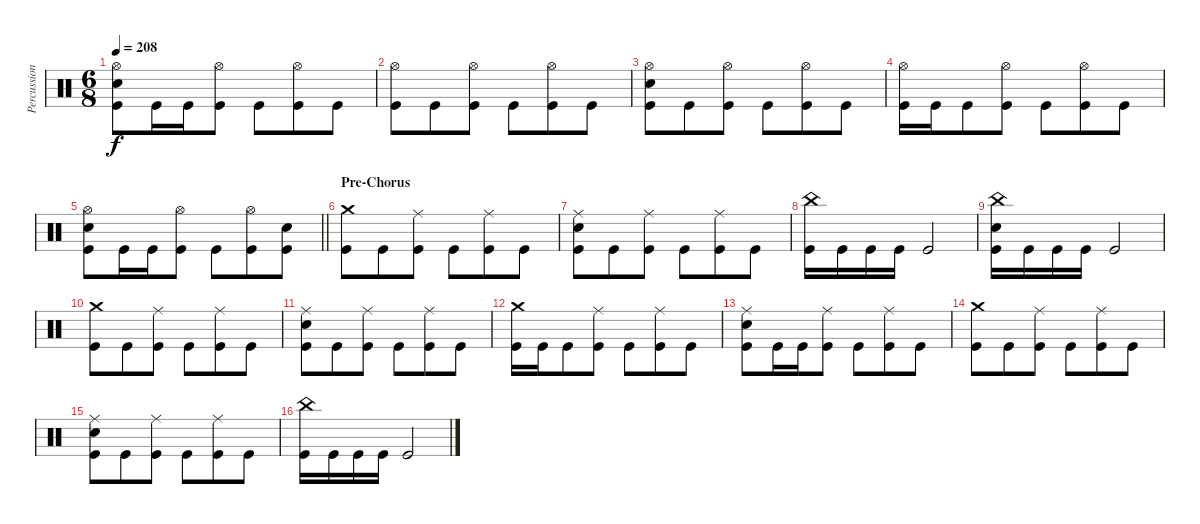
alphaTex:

\track ("Percussion" "Percussion") {instrument percussion}
\staff {score}
\articulation defaults
\ts (6 8)
\tempo 208
\clef neutral
\ks c
("Hi-Hat (open)" "Electric Snare (hit)" "Kick (hit)").8{dy f} "Kick (hit)".16 "Kick (hit)".16 ("Hi-Hat (open)" "Kick (hit)").8 "Kick (hit)".8 ("Hi-Hat (open)" "Kick (hit)").8 "Kick (hit)".8 |
("Hi-Hat (open)" "Kick (hit)").8 "Kick (hit)".8 ("Hi-Hat (open)" "Kick (hit)").8 "Kick (hit)".8 ("Hi-Hat (open)" "Kick (hit)").8 "Kick (hit)".8 |
("Hi-Hat (open)" "Electric Snare (hit)" "Kick (hit)").8 "Kick (hit)".8 ("Hi-Hat (open)" "Kick (hit)").8 "Kick (hit)".8 ("Hi-Hat (open)" "Kick (hit)").8 "Kick (hit)".8 |
("Hi-Hat (open)" "Kick (hit)").16 "Kick (hit)".16 "Kick (hit)".8 ("Hi-Hat (open)" "Kick (hit)").8 "Kick (hit)".8 ("Hi-Hat (open)" "Kick (hit)").8 "Kick (hit)".8 |
\barLineRight lightlight
("Hi-Hat (open)" "Electric Snare (hit)" "Kick (hit)").8 "Kick (hit)".16 "Kick (hit)".16 ("Hi-Hat (open)" "Kick (hit)").8 "Kick (hit)".8 ("Hi-Hat (open)" "Kick (hit)").8 ("Electric Snare (hit)" "Kick (hit)").8 |
\section ("" "Pre-Chorus")
("Crash medium (hit)" "Kick (hit)").8 "Kick (hit)".8 ("Ride (middle)" "Kick (hit)").8 "Kick (hit)".8 ("Ride (middle)" "Kick (hit)").8 "Kick (hit)".8 |
("Ride (middle)" "Electric Snare (hit)" "Kick (hit)").8 "Kick (hit)".8 ("Ride (middle)" "Kick (hit)").8 "Kick (hit)".8 ("Ride (middle)" "Kick (hit)").8 "Kick (hit)".8 |
("China (hit)" "Kick (hit)").16 "Kick (hit)".16 "Kick (hit)".16 "Kick (hit)".16 "Kick (hit)".2 |
("China (hit)" "Electric Snare (hit)" "Kick (hit)").16 "Kick (hit)".16 "Kick (hit)".16 "Kick (hit)".16 "Kick (hit)".2 |
("Crash medium (hit)" "Kick (hit)").8 "Kick (hit)".8 ("Ride (middle)" "Kick (hit)").8 "Kick (hit)".8 ("Ride (middle)" "Kick (hit)").8 "Kick (hit)".8 |
("Ride (middle)" "Electric Snare (hit)" "Kick (hit)").8 "Kick (hit)".8 ("Ride (middle)" "Kick (hit)").8 "Kick (hit)".8 ("Ride (middle)" "Kick (hit)").8 "Kick (hit)".8 |
("Crash medium (hit)" "Kick (hit)").16 "Kick (hit)".16 "Kick (hit)".8 ("Ride (middle)" "Kick (hit)").8 "Kick (hit)".8 ("Ride (middle)" "Kick (hit)").8 "Kick (hit)".8 |
("Ride (middle)" "Electric Snare (hit)" "Kick (hit)").8 "Kick (hit)".16 "Kick (hit)".16 ("Ride (middle)" "Kick (hit)").8 "Kick (hit)".8 ("Ride (middle)" "Kick (hit)").8 "Kick (hit)".8 |
("Crash medium (hit)" "Kick (hit)").8 "Kick (hit)".8 ("Ride (middle)" "Kick (hit)").8 "Kick (hit)".8 ("Ride (middle)" "Kick (hit)").8 "Kick (hit)".8 |
("Ride (middle)" "Electric Snare (hit)" "Kick (hit)").8 "Kick (hit)".8 ("Ride (middle)" "Kick (hit)").8 "Kick (hit)".8 ("Ride (middle)" "Kick (hit)").8 "Kick (hit)".8 |
("China (hit)" "Kick (hit)").16 "Kick (hit)".16 "Kick (hit)".16 "Kick (hit)".16 "Kick (hit)".2
